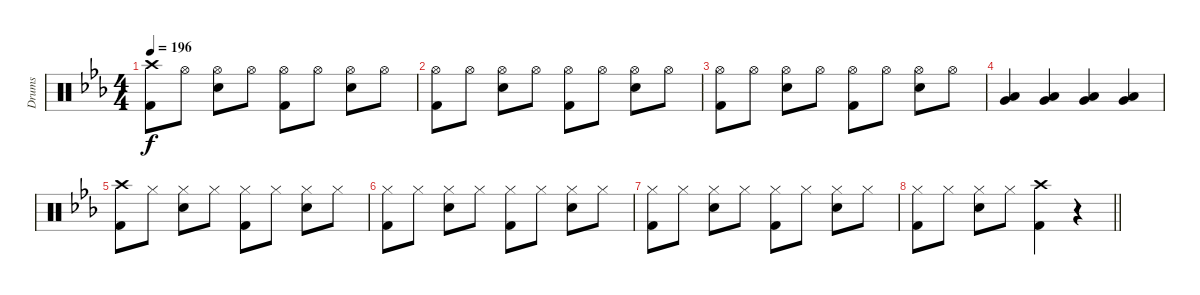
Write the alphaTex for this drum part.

\track ("Drums" "Drums") {instrument percussion}
\staff {score}
\articulation defaults
\ts (4 4)
\tempo 196
\clef neutral
\ks eb
("Crash high (hit)" "Kick (hit) 2").8{dy f} "Hi-Hat (open)".8 ("Hi-Hat (open)" "Snare (hit) 2").8 "Hi-Hat (open)".8 ("Hi-Hat (open)" "Kick (hit) 2").8 "Hi-Hat (open)".8 ("Hi-Hat (open)" "Snare (hit) 2").8 "Hi-Hat (open)".8 |
("Hi-Hat (open)" "Kick (hit) 2").8 "Hi-Hat (open)".8 ("Hi-Hat (open)" "Snare (hit) 2").8 "Hi-Hat (open)".8 ("Hi-Hat (open)" "Kick (hit) 2").8 "Hi-Hat (open)".8 ("Hi-Hat (open)" "Snare (hit) 2").8 "Hi-Hat (open)".8 |
("Hi-Hat (open)" "Kick (hit) 2").8 "Hi-Hat (open)".8 ("Hi-Hat (open)" "Snare (hit) 2").8 "Hi-Hat (open)".8 ("Hi-Hat (open)" "Kick (hit) 2").8 "Hi-Hat (open)".8 ("Hi-Hat (open)" "Snare (hit) 2").8 "Hi-Hat (open)".8 |
("Very Low Tom (hit)" "Low Floor Tom (hit)").4 ("Very Low Tom (hit)" "Low Floor Tom (hit)").4 ("Very Low Tom (hit)" "Low Floor Tom (hit)").4 ("Very Low Tom (hit)" "Low Floor Tom (hit)").4 |
("Crash high (hit)" "Kick (hit) 2").8 "Hi-Hat (closed)".8 ("Hi-Hat (closed)" "Snare (hit) 2").8 "Hi-Hat (closed)".8 ("Hi-Hat (closed)" "Kick (hit) 2").8 "Hi-Hat (closed)".8 ("Hi-Hat (closed)" "Snare (hit) 2").8 "Hi-Hat (closed)".8 |
("Hi-Hat (closed)" "Kick (hit) 2").8 "Hi-Hat (closed)".8 ("Hi-Hat (closed)" "Snare (hit) 2").8 "Hi-Hat (closed)".8 ("Hi-Hat (closed)" "Kick (hit) 2").8 "Hi-Hat (closed)".8 ("Hi-Hat (closed)" "Snare (hit) 2").8 "Hi-Hat (closed)".8 |
("Hi-Hat (closed)" "Kick (hit) 2").8 "Hi-Hat (closed)".8 ("Hi-Hat (closed)" "Snare (hit) 2").8 "Hi-Hat (closed)".8 ("Hi-Hat (closed)" "Kick (hit) 2").8 "Hi-Hat (closed)".8 ("Hi-Hat (closed)" "Snare (hit) 2").8 "Hi-Hat (closed)".8 |
\barLineRight lightlight
("Hi-Hat (closed)" "Kick (hit) 2").8 "Hi-Hat (closed)".8 ("Hi-Hat (closed)" "Snare (hit) 2").8 "Hi-Hat (closed)".8 ("Crash high (hit)" "Kick (hit) 2").4 r.4
